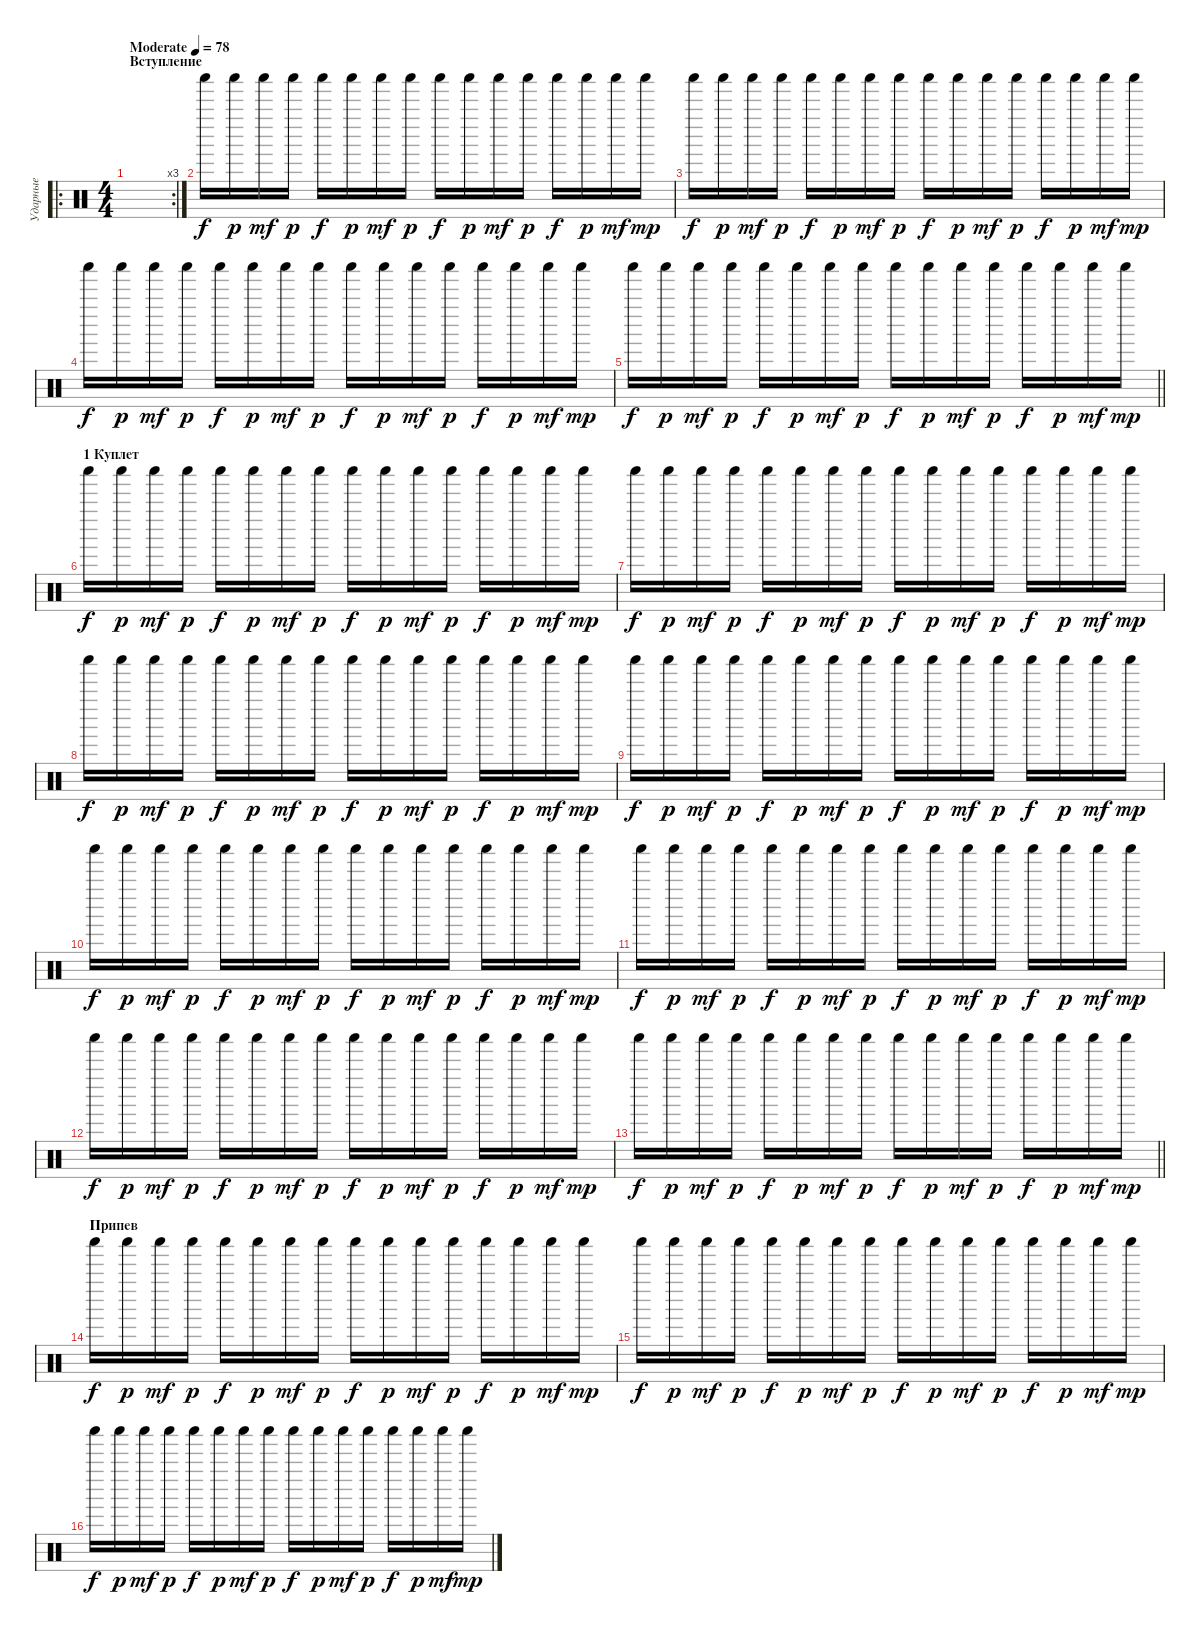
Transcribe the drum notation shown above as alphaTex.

\track ("Ударные" "Ударные") {instrument percussion}
\staff {score}
\articulation defaults
\ro
\rc 3
\ts (4 4)
\section ("" "Вступление")
\tempo (78 "Moderate")
\clef neutral
\ks c
|
"Shaker (hit)".16 "Shaker (hit)".16{dy p} "Shaker (hit)".16{dy mf} "Shaker (hit)".16{dy p} "Shaker (hit)".16{dy f} "Shaker (hit)".16{dy p} "Shaker (hit)".16{dy mf} "Shaker (hit)".16{dy p} "Shaker (hit)".16{dy f} "Shaker (hit)".16{dy p} "Shaker (hit)".16{dy mf} "Shaker (hit)".16{dy p} "Shaker (hit)".16{dy f} "Shaker (hit)".16{dy p} "Shaker (hit)".16{dy mf} "Shaker (hit)".16{dy mp} |
"Shaker (hit)".16{dy f} "Shaker (hit)".16{dy p} "Shaker (hit)".16{dy mf} "Shaker (hit)".16{dy p} "Shaker (hit)".16{dy f} "Shaker (hit)".16{dy p} "Shaker (hit)".16{dy mf} "Shaker (hit)".16{dy p} "Shaker (hit)".16{dy f} "Shaker (hit)".16{dy p} "Shaker (hit)".16{dy mf} "Shaker (hit)".16{dy p} "Shaker (hit)".16{dy f} "Shaker (hit)".16{dy p} "Shaker (hit)".16{dy mf} "Shaker (hit)".16{dy mp} |
"Shaker (hit)".16{dy f} "Shaker (hit)".16{dy p} "Shaker (hit)".16{dy mf} "Shaker (hit)".16{dy p} "Shaker (hit)".16{dy f} "Shaker (hit)".16{dy p} "Shaker (hit)".16{dy mf} "Shaker (hit)".16{dy p} "Shaker (hit)".16{dy f} "Shaker (hit)".16{dy p} "Shaker (hit)".16{dy mf} "Shaker (hit)".16{dy p} "Shaker (hit)".16{dy f} "Shaker (hit)".16{dy p} "Shaker (hit)".16{dy mf} "Shaker (hit)".16{dy mp} |
\barLineRight lightlight "Shaker (hit)".16{dy f} "Shaker (hit)".16{dy p} "Shaker (hit)".16{dy mf} "Shaker (hit)".16{dy p} "Shaker (hit)".16{dy f} "Shaker (hit)".16{dy p} "Shaker (hit)".16{dy mf} "Shaker (hit)".16{dy p} "Shaker (hit)".16{dy f} "Shaker (hit)".16{dy p} "Shaker (hit)".16{dy mf} "Shaker (hit)".16{dy p} "Shaker (hit)".16{dy f} "Shaker (hit)".16{dy p} "Shaker (hit)".16{dy mf} "Shaker (hit)".16{dy mp}
|
\section ("" "1 Куплет")
"Shaker (hit)".16{dy f} "Shaker (hit)".16{dy p} "Shaker (hit)".16{dy mf} "Shaker (hit)".16{dy p} "Shaker (hit)".16{dy f} "Shaker (hit)".16{dy p} "Shaker (hit)".16{dy mf} "Shaker (hit)".16{dy p} "Shaker (hit)".16{dy f} "Shaker (hit)".16{dy p} "Shaker (hit)".16{dy mf} "Shaker (hit)".16{dy p} "Shaker (hit)".16{dy f} "Shaker (hit)".16{dy p} "Shaker (hit)".16{dy mf} "Shaker (hit)".16{dy mp} |
"Shaker (hit)".16{dy f} "Shaker (hit)".16{dy p} "Shaker (hit)".16{dy mf} "Shaker (hit)".16{dy p} "Shaker (hit)".16{dy f} "Shaker (hit)".16{dy p} "Shaker (hit)".16{dy mf} "Shaker (hit)".16{dy p} "Shaker (hit)".16{dy f} "Shaker (hit)".16{dy p} "Shaker (hit)".16{dy mf} "Shaker (hit)".16{dy p} "Shaker (hit)".16{dy f} "Shaker (hit)".16{dy p} "Shaker (hit)".16{dy mf} "Shaker (hit)".16{dy mp} |
"Shaker (hit)".16{dy f} "Shaker (hit)".16{dy p} "Shaker (hit)".16{dy mf} "Shaker (hit)".16{dy p} "Shaker (hit)".16{dy f} "Shaker (hit)".16{dy p} "Shaker (hit)".16{dy mf} "Shaker (hit)".16{dy p} "Shaker (hit)".16{dy f} "Shaker (hit)".16{dy p} "Shaker (hit)".16{dy mf} "Shaker (hit)".16{dy p} "Shaker (hit)".16{dy f} "Shaker (hit)".16{dy p} "Shaker (hit)".16{dy mf} "Shaker (hit)".16{dy mp} |
"Shaker (hit)".16{dy f} "Shaker (hit)".16{dy p} "Shaker (hit)".16{dy mf} "Shaker (hit)".16{dy p} "Shaker (hit)".16{dy f} "Shaker (hit)".16{dy p} "Shaker (hit)".16{dy mf} "Shaker (hit)".16{dy p} "Shaker (hit)".16{dy f} "Shaker (hit)".16{dy p} "Shaker (hit)".16{dy mf} "Shaker (hit)".16{dy p} "Shaker (hit)".16{dy f} "Shaker (hit)".16{dy p} "Shaker (hit)".16{dy mf} "Shaker (hit)".16{dy mp} |
"Shaker (hit)".16{dy f} "Shaker (hit)".16{dy p} "Shaker (hit)".16{dy mf} "Shaker (hit)".16{dy p} "Shaker (hit)".16{dy f} "Shaker (hit)".16{dy p} "Shaker (hit)".16{dy mf} "Shaker (hit)".16{dy p} "Shaker (hit)".16{dy f} "Shaker (hit)".16{dy p} "Shaker (hit)".16{dy mf} "Shaker (hit)".16{dy p} "Shaker (hit)".16{dy f} "Shaker (hit)".16{dy p} "Shaker (hit)".16{dy mf} "Shaker (hit)".16{dy mp} |
"Shaker (hit)".16{dy f} "Shaker (hit)".16{dy p} "Shaker (hit)".16{dy mf} "Shaker (hit)".16{dy p} "Shaker (hit)".16{dy f} "Shaker (hit)".16{dy p} "Shaker (hit)".16{dy mf} "Shaker (hit)".16{dy p} "Shaker (hit)".16{dy f} "Shaker (hit)".16{dy p} "Shaker (hit)".16{dy mf} "Shaker (hit)".16{dy p} "Shaker (hit)".16{dy f} "Shaker (hit)".16{dy p} "Shaker (hit)".16{dy mf} "Shaker (hit)".16{dy mp} |
"Shaker (hit)".16{dy f} "Shaker (hit)".16{dy p} "Shaker (hit)".16{dy mf} "Shaker (hit)".16{dy p} "Shaker (hit)".16{dy f} "Shaker (hit)".16{dy p} "Shaker (hit)".16{dy mf} "Shaker (hit)".16{dy p} "Shaker (hit)".16{dy f} "Shaker (hit)".16{dy p} "Shaker (hit)".16{dy mf} "Shaker (hit)".16{dy p} "Shaker (hit)".16{dy f} "Shaker (hit)".16{dy p} "Shaker (hit)".16{dy mf} "Shaker (hit)".16{dy mp} |
\barLineRight lightlight "Shaker (hit)".16{dy f} "Shaker (hit)".16{dy p} "Shaker (hit)".16{dy mf} "Shaker (hit)".16{dy p} "Shaker (hit)".16{dy f} "Shaker (hit)".16{dy p} "Shaker (hit)".16{dy mf} "Shaker (hit)".16{dy p} "Shaker (hit)".16{dy f} "Shaker (hit)".16{dy p} "Shaker (hit)".16{dy mf} "Shaker (hit)".16{dy p} "Shaker (hit)".16{dy f} "Shaker (hit)".16{dy p} "Shaker (hit)".16{dy mf} "Shaker (hit)".16{dy mp}
|
\section ("" "Припев")
"Shaker (hit)".16{dy f} "Shaker (hit)".16{dy p} "Shaker (hit)".16{dy mf} "Shaker (hit)".16{dy p} "Shaker (hit)".16{dy f} "Shaker (hit)".16{dy p} "Shaker (hit)".16{dy mf} "Shaker (hit)".16{dy p} "Shaker (hit)".16{dy f} "Shaker (hit)".16{dy p} "Shaker (hit)".16{dy mf} "Shaker (hit)".16{dy p} "Shaker (hit)".16{dy f} "Shaker (hit)".16{dy p} "Shaker (hit)".16{dy mf} "Shaker (hit)".16{dy mp} |
"Shaker (hit)".16{dy f} "Shaker (hit)".16{dy p} "Shaker (hit)".16{dy mf} "Shaker (hit)".16{dy p} "Shaker (hit)".16{dy f} "Shaker (hit)".16{dy p} "Shaker (hit)".16{dy mf} "Shaker (hit)".16{dy p} "Shaker (hit)".16{dy f} "Shaker (hit)".16{dy p} "Shaker (hit)".16{dy mf} "Shaker (hit)".16{dy p} "Shaker (hit)".16{dy f} "Shaker (hit)".16{dy p} "Shaker (hit)".16{dy mf} "Shaker (hit)".16{dy mp} |
"Shaker (hit)".16{dy f} "Shaker (hit)".16{dy p} "Shaker (hit)".16{dy mf} "Shaker (hit)".16{dy p} "Shaker (hit)".16{dy f} "Shaker (hit)".16{dy p} "Shaker (hit)".16{dy mf} "Shaker (hit)".16{dy p} "Shaker (hit)".16{dy f} "Shaker (hit)".16{dy p} "Shaker (hit)".16{dy mf} "Shaker (hit)".16{dy p} "Shaker (hit)".16{dy f} "Shaker (hit)".16{dy p} "Shaker (hit)".16{dy mf} "Shaker (hit)".16{dy mp}
